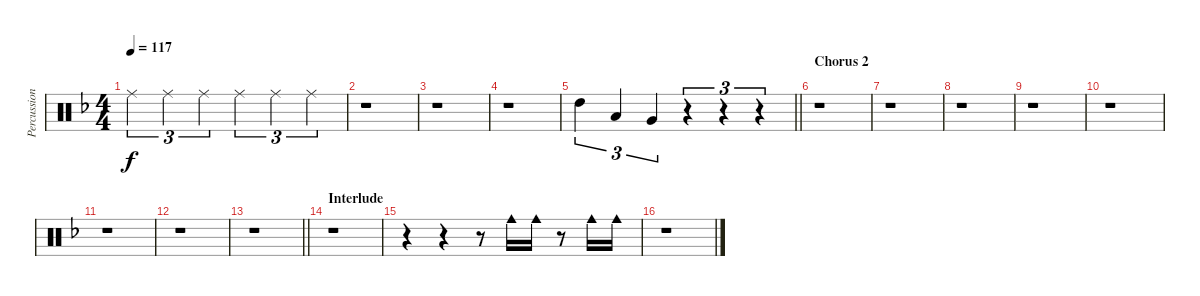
\track ("Percussions" "Percussion") {instrument percussion}
\staff {score}
\articulation defaults
\ts (4 4)
\tempo 117
\clef neutral
\ks f "Ride (middle)".4{tu (3 2) dy f} "Ride (middle)".4{tu (3 2)} "Ride (middle)".4{tu (3 2)} "Ride (middle)".4{tu (3 2)} "Ride (middle)".4{tu (3 2)} "Ride (middle)".4{tu (3 2)}
|
r.1 |
r.1 |
r.1 |
\barLineRight lightlight "High Tom (hit)".4{tu (3 2)} "Low Tom (hit)".4{tu (3 2)} "Very Low Tom (hit)".4{tu (3 2)}
r.4{tu (3 2)} r.4{tu (3 2)} r.4{tu (3 2)} |
\section ("" "Chorus 2")
r.1 |
r.1 |
r.1 |
r.1 |
r.1 |
r.1 |
r.1 |
\barLineRight lightlight
r.1 |
\section ("" "Interlude")
r.1 |
r.4 r.4 r.8 "Cowbell medium (hit)".16 "Cowbell medium (hit)".16 r.8 "Cowbell medium (hit)".16 "Cowbell medium (hit)".16 |
r.1
